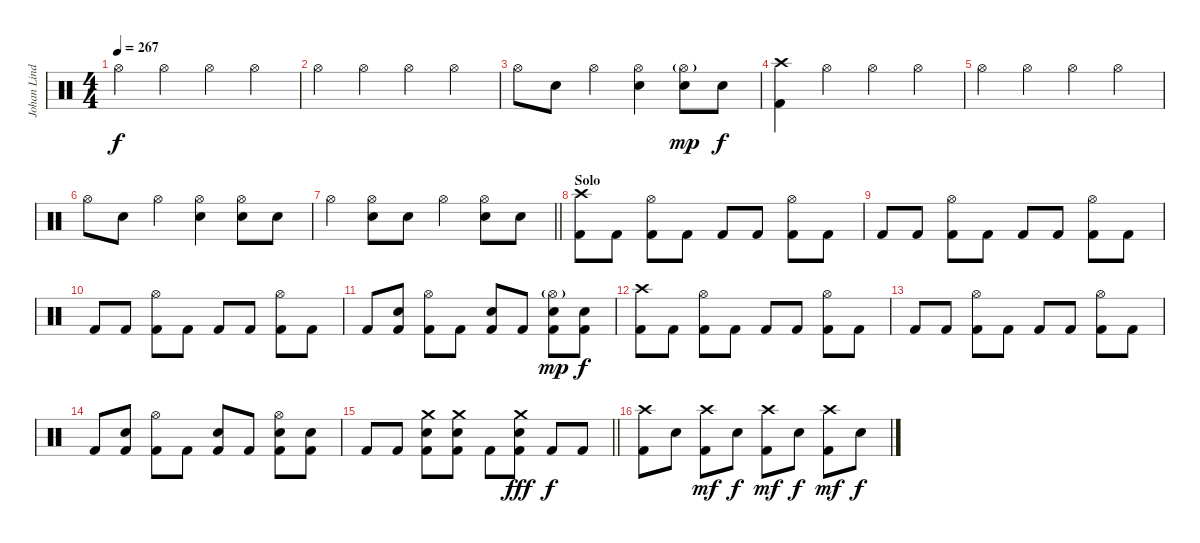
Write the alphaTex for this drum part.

\track ("Johan Lindstrand" "Johan Lind") {instrument percussion}
\staff {score}
\articulation defaults
\ts (4 4)
\tempo 267
\clef neutral
\ks c "Hi-Hat (open)".4{dy f} "Hi-Hat (open)".4 "Hi-Hat (open)".4 "Hi-Hat (open)".4
|
"Hi-Hat (open)".4 "Hi-Hat (open)".4 "Hi-Hat (open)".4 "Hi-Hat (open)".4 |
"Hi-Hat (open)".8 "Electric Snare (hit)".8 "Hi-Hat (open)".4 ("Hi-Hat (open)" "Electric Snare (hit)").4 ("Hi-Hat (open)"{g} "Electric Snare (hit)").8{dy mp} "Electric Snare (hit)".8{dy f} |
("Crash high (hit)" "Kick (hit) 2").4 "Hi-Hat (open)".4 "Hi-Hat (open)".4 "Hi-Hat (open)".4 |
"Hi-Hat (open)".4 "Hi-Hat (open)".4 "Hi-Hat (open)".4 "Hi-Hat (open)".4 |
"Hi-Hat (open)".8 "Electric Snare (hit)".8 "Hi-Hat (open)".4 ("Hi-Hat (open)" "Electric Snare (hit)").4 ("Hi-Hat (open)" "Electric Snare (hit)").8 "Electric Snare (hit)".8 |
\barLineRight lightlight "Hi-Hat (open)".4
("Hi-Hat (open)" "Electric Snare (hit)").8 "Electric Snare (hit)".8 "Hi-Hat (open)".4 ("Hi-Hat (open)" "Electric Snare (hit)").8 "Electric Snare (hit)".8 |
\section ("" "Solo")
("Crash high (hit)" "Kick (hit) 2").8 "Kick (hit) 2".8 ("Hi-Hat (open)" "Kick (hit) 2").8 "Kick (hit) 2".8 "Kick (hit) 2".8 "Kick (hit) 2".8 ("Hi-Hat (open)" "Kick (hit) 2").8 "Kick (hit) 2".8 |
"Kick (hit) 2".8 "Kick (hit) 2".8 ("Hi-Hat (open)" "Kick (hit) 2").8 "Kick (hit) 2".8 "Kick (hit) 2".8 "Kick (hit) 2".8 ("Hi-Hat (open)" "Kick (hit) 2").8 "Kick (hit) 2".8 |
"Kick (hit) 2".8 "Kick (hit) 2".8 ("Hi-Hat (open)" "Kick (hit) 2").8 "Kick (hit) 2".8 "Kick (hit) 2".8 "Kick (hit) 2".8 ("Hi-Hat (open)" "Kick (hit) 2").8 "Kick (hit) 2".8 |
"Kick (hit) 2".8 ("Electric Snare (hit)" "Kick (hit) 2").8 ("Hi-Hat (open)" "Kick (hit) 2").8 "Kick (hit) 2".8 ("Electric Snare (hit)" "Kick (hit) 2").8 "Kick (hit) 2".8 ("Hi-Hat (open)"{g} "Electric Snare (hit)" "Kick (hit) 2").8{dy mp} ("Electric Snare (hit)" "Kick (hit) 2").8{dy f} |
("Crash high (hit)" "Kick (hit) 2").8 "Kick (hit) 2".8 ("Hi-Hat (open)" "Kick (hit) 2").8 "Kick (hit) 2".8 "Kick (hit) 2".8 "Kick (hit) 2".8 ("Hi-Hat (open)" "Kick (hit) 2").8 "Kick (hit) 2".8 |
"Kick (hit) 2".8 "Kick (hit) 2".8 ("Hi-Hat (open)" "Kick (hit) 2").8 "Kick (hit) 2".8 "Kick (hit) 2".8 "Kick (hit) 2".8 ("Hi-Hat (open)" "Kick (hit) 2").8 "Kick (hit) 2".8 |
"Kick (hit) 2".8 ("Electric Snare (hit)" "Kick (hit) 2").8 ("Hi-Hat (open)" "Kick (hit) 2").8 "Kick (hit) 2".8 ("Electric Snare (hit)" "Kick (hit) 2").8 "Kick (hit) 2".8 ("Hi-Hat (open)" "Electric Snare (hit)" "Kick (hit) 2").8 ("Electric Snare (hit)" "Kick (hit) 2").8 |
\barLineRight lightlight "Kick (hit) 2".8 "Kick (hit) 2".8
("Crash medium (hit)" "Electric Snare (hit)" "Kick (hit) 2").8 ("Crash medium (hit)" "Electric Snare (hit)" "Kick (hit) 2").8 "Kick (hit) 2".8 ("Crash medium (hit)" "Electric Snare (hit)" "Kick (hit) 2").8{dy fff} "Kick (hit) 2".8{dy f} "Kick (hit) 2".8 |
\section ("" "")
("Crash high (hit)" "Kick (hit) 2").8 "Electric Snare (hit)".8 ("Crash high (hit)" "Kick (hit) 2").8{dy mf} "Electric Snare (hit)".8{dy f} ("Crash high (hit)" "Kick (hit) 2").8{dy mf} "Electric Snare (hit)".8{dy f} ("Crash high (hit)" "Kick (hit) 2").8{dy mf} "Electric Snare (hit)".8{dy f}
